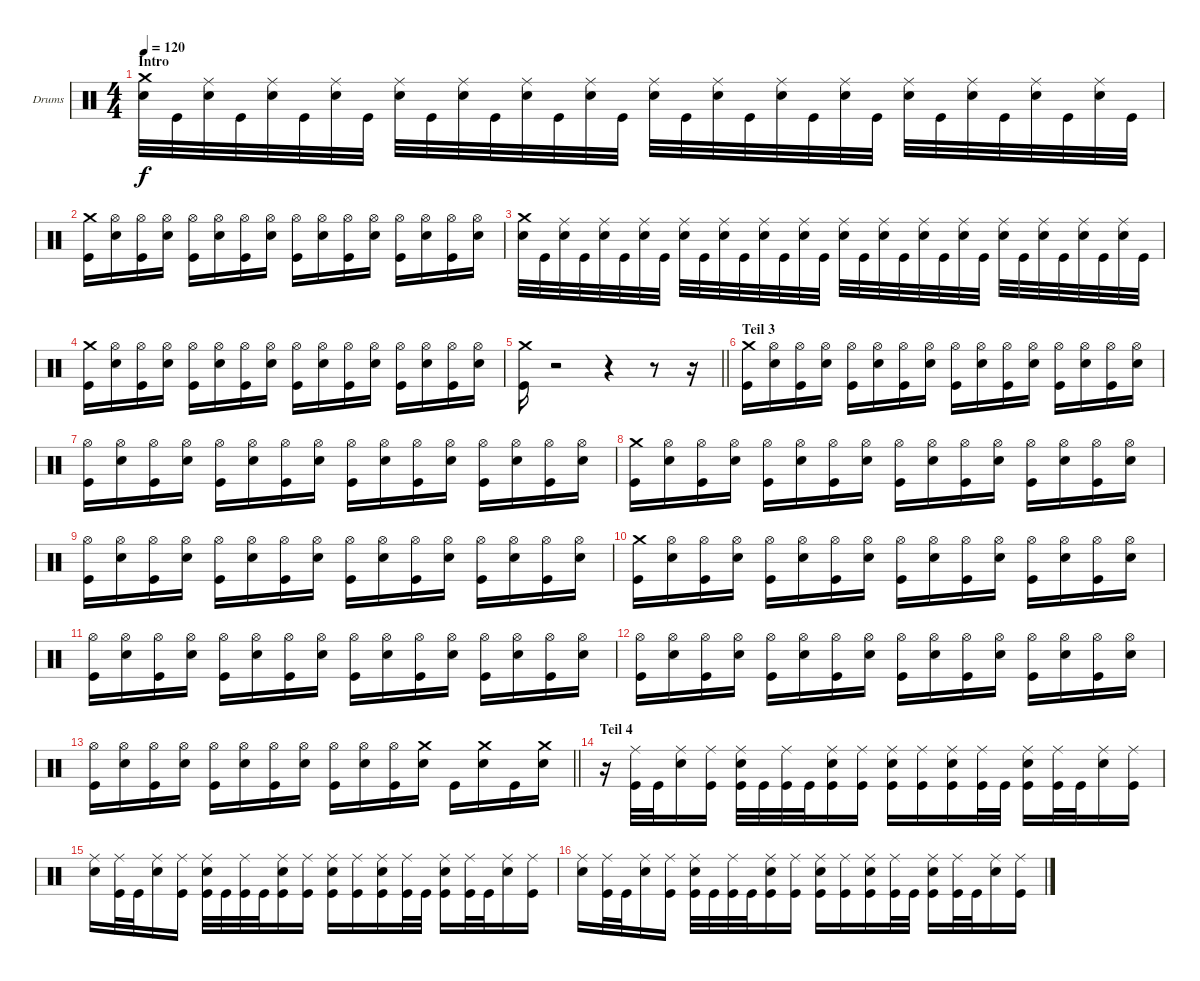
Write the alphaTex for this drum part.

\bracketExtendMode groupsimilarinstruments
\firstSystemTrackNameOrientation horizontal
\otherSystemsTrackNameOrientation horizontal
\track ("Drumkit" "Drums") {instrument percussion}
\staff {score}
\articulation defaults
\ts (4 4)
\beaming (8 2 2 2 2)
\section ("" "Intro")
\tempo 120
\clef neutral
\ks c
("Crash medium (hit)" "Snare (hit) 2").32{dy f} "Kick (hit)".32 ("Ride (middle)" "Snare (hit) 2").32 "Kick (hit)".32 ("Ride (middle)" "Snare (hit) 2").32 "Kick (hit)".32 ("Ride (middle)" "Snare (hit) 2").32 "Kick (hit)".32 ("Ride (middle)" "Snare (hit) 2").32 "Kick (hit)".32 ("Ride (middle)" "Snare (hit) 2").32 "Kick (hit)".32 ("Ride (middle)" "Snare (hit) 2").32 "Kick (hit)".32 ("Ride (middle)" "Snare (hit) 2").32 "Kick (hit)".32 ("Ride (middle)" "Snare (hit) 2").32 "Kick (hit)".32 ("Ride (middle)" "Snare (hit) 2").32 "Kick (hit)".32 ("Ride (middle)" "Snare (hit) 2").32 "Kick (hit)".32 ("Ride (middle)" "Snare (hit) 2").32 "Kick (hit)".32 ("Ride (middle)" "Snare (hit) 2").32 "Kick (hit)".32 ("Ride (middle)" "Snare (hit) 2").32 "Kick (hit)".32 ("Ride (middle)" "Snare (hit) 2").32 "Kick (hit)".32 ("Ride (middle)" "Snare (hit) 2").32 "Kick (hit)".32 |
("Crash medium (hit)" "Kick (hit)").16 ("Hi-Hat (open)" "Snare (hit) 2").16 ("Hi-Hat (open)" "Kick (hit)").16 ("Hi-Hat (open)" "Snare (hit) 2").16 ("Hi-Hat (open)" "Kick (hit)").16 ("Hi-Hat (open)" "Snare (hit) 2").16 ("Hi-Hat (open)" "Kick (hit)").16 ("Hi-Hat (open)" "Snare (hit) 2").16 ("Hi-Hat (open)" "Kick (hit)").16 ("Hi-Hat (open)" "Snare (hit) 2").16 ("Hi-Hat (open)" "Kick (hit)").16 ("Hi-Hat (open)" "Snare (hit) 2").16 ("Hi-Hat (open)" "Kick (hit)").16 ("Hi-Hat (open)" "Snare (hit) 2").16 ("Hi-Hat (open)" "Kick (hit)").16 ("Hi-Hat (open)" "Snare (hit) 2").16 |
("Crash medium (hit)" "Snare (hit) 2").32 "Kick (hit)".32 ("Ride (middle)" "Snare (hit) 2").32 "Kick (hit)".32 ("Ride (middle)" "Snare (hit) 2").32 "Kick (hit)".32 ("Ride (middle)" "Snare (hit) 2").32 "Kick (hit)".32 ("Ride (middle)" "Snare (hit) 2").32 "Kick (hit)".32 ("Ride (middle)" "Snare (hit) 2").32 "Kick (hit)".32 ("Ride (middle)" "Snare (hit) 2").32 "Kick (hit)".32 ("Ride (middle)" "Snare (hit) 2").32 "Kick (hit)".32 ("Ride (middle)" "Snare (hit) 2").32 "Kick (hit)".32 ("Ride (middle)" "Snare (hit) 2").32 "Kick (hit)".32 ("Ride (middle)" "Snare (hit) 2").32 "Kick (hit)".32 ("Ride (middle)" "Snare (hit) 2").32 "Kick (hit)".32 ("Ride (middle)" "Snare (hit) 2").32 "Kick (hit)".32 ("Ride (middle)" "Snare (hit) 2").32 "Kick (hit)".32 ("Ride (middle)" "Snare (hit) 2").32 "Kick (hit)".32 ("Ride (middle)" "Snare (hit) 2").32 "Kick (hit)".32 |
("Crash medium (hit)" "Kick (hit)").16 ("Hi-Hat (open)" "Snare (hit) 2").16 ("Hi-Hat (open)" "Kick (hit)").16 ("Hi-Hat (open)" "Snare (hit) 2").16 ("Hi-Hat (open)" "Kick (hit)").16 ("Hi-Hat (open)" "Snare (hit) 2").16 ("Hi-Hat (open)" "Kick (hit)").16 ("Hi-Hat (open)" "Snare (hit) 2").16 ("Hi-Hat (open)" "Kick (hit)").16 ("Hi-Hat (open)" "Snare (hit) 2").16 ("Hi-Hat (open)" "Kick (hit)").16 ("Hi-Hat (open)" "Snare (hit) 2").16 ("Hi-Hat (open)" "Kick (hit)").16 ("Hi-Hat (open)" "Snare (hit) 2").16 ("Hi-Hat (open)" "Kick (hit)").16 ("Hi-Hat (open)" "Snare (hit) 2").16 |
\barLineRight lightlight
("Crash medium (hit)" "Kick (hit)").16 r.2 r.4 r.8 r.16 |
\section ("" "Teil 3")
("Crash medium (hit)" "Kick (hit)").16 ("Hi-Hat (open)" "Snare (hit) 2").16 ("Hi-Hat (open)" "Kick (hit)").16 ("Hi-Hat (open)" "Snare (hit) 2").16 ("Hi-Hat (open)" "Kick (hit)").16 ("Hi-Hat (open)" "Snare (hit) 2").16 ("Hi-Hat (open)" "Kick (hit)").16 ("Hi-Hat (open)" "Snare (hit) 2").16 ("Hi-Hat (open)" "Kick (hit)").16 ("Hi-Hat (open)" "Snare (hit) 2").16 ("Hi-Hat (open)" "Kick (hit)").16 ("Hi-Hat (open)" "Snare (hit) 2").16 ("Hi-Hat (open)" "Kick (hit)").16 ("Hi-Hat (open)" "Snare (hit) 2").16 ("Hi-Hat (open)" "Kick (hit)").16 ("Hi-Hat (open)" "Snare (hit) 2").16 |
("Hi-Hat (open)" "Kick (hit)").16 ("Hi-Hat (open)" "Snare (hit) 2").16 ("Hi-Hat (open)" "Kick (hit)").16 ("Hi-Hat (open)" "Snare (hit) 2").16 ("Hi-Hat (open)" "Kick (hit)").16 ("Hi-Hat (open)" "Snare (hit) 2").16 ("Hi-Hat (open)" "Kick (hit)").16 ("Hi-Hat (open)" "Snare (hit) 2").16 ("Hi-Hat (open)" "Kick (hit)").16 ("Hi-Hat (open)" "Snare (hit) 2").16 ("Hi-Hat (open)" "Kick (hit)").16 ("Hi-Hat (open)" "Snare (hit) 2").16 ("Hi-Hat (open)" "Kick (hit)").16 ("Hi-Hat (open)" "Snare (hit) 2").16 ("Hi-Hat (open)" "Kick (hit)").16 ("Hi-Hat (open)" "Snare (hit) 2").16 |
("Crash medium (hit)" "Kick (hit)").16 ("Hi-Hat (open)" "Snare (hit) 2").16 ("Hi-Hat (open)" "Kick (hit)").16 ("Hi-Hat (open)" "Snare (hit) 2").16 ("Hi-Hat (open)" "Kick (hit)").16 ("Hi-Hat (open)" "Snare (hit) 2").16 ("Hi-Hat (open)" "Kick (hit)").16 ("Hi-Hat (open)" "Snare (hit) 2").16 ("Hi-Hat (open)" "Kick (hit)").16 ("Hi-Hat (open)" "Snare (hit) 2").16 ("Hi-Hat (open)" "Kick (hit)").16 ("Hi-Hat (open)" "Snare (hit) 2").16 ("Hi-Hat (open)" "Kick (hit)").16 ("Hi-Hat (open)" "Snare (hit) 2").16 ("Hi-Hat (open)" "Kick (hit)").16 ("Hi-Hat (open)" "Snare (hit) 2").16 |
("Hi-Hat (open)" "Kick (hit)").16 ("Hi-Hat (open)" "Snare (hit) 2").16 ("Hi-Hat (open)" "Kick (hit)").16 ("Hi-Hat (open)" "Snare (hit) 2").16 ("Hi-Hat (open)" "Kick (hit)").16 ("Hi-Hat (open)" "Snare (hit) 2").16 ("Hi-Hat (open)" "Kick (hit)").16 ("Hi-Hat (open)" "Snare (hit) 2").16 ("Hi-Hat (open)" "Kick (hit)").16 ("Hi-Hat (open)" "Snare (hit) 2").16 ("Hi-Hat (open)" "Kick (hit)").16 ("Hi-Hat (open)" "Snare (hit) 2").16 ("Hi-Hat (open)" "Kick (hit)").16 ("Hi-Hat (open)" "Snare (hit) 2").16 ("Hi-Hat (open)" "Kick (hit)").16 ("Hi-Hat (open)" "Snare (hit) 2").16 |
("Crash medium (hit)" "Kick (hit)").16 ("Hi-Hat (open)" "Snare (hit) 2").16 ("Hi-Hat (open)" "Kick (hit)").16 ("Hi-Hat (open)" "Snare (hit) 2").16 ("Hi-Hat (open)" "Kick (hit)").16 ("Hi-Hat (open)" "Snare (hit) 2").16 ("Hi-Hat (open)" "Kick (hit)").16 ("Hi-Hat (open)" "Snare (hit) 2").16 ("Hi-Hat (open)" "Kick (hit)").16 ("Hi-Hat (open)" "Snare (hit) 2").16 ("Hi-Hat (open)" "Kick (hit)").16 ("Hi-Hat (open)" "Snare (hit) 2").16 ("Hi-Hat (open)" "Kick (hit)").16 ("Hi-Hat (open)" "Snare (hit) 2").16 ("Hi-Hat (open)" "Kick (hit)").16 ("Hi-Hat (open)" "Snare (hit) 2").16 |
("Hi-Hat (open)" "Kick (hit)").16 ("Hi-Hat (open)" "Snare (hit) 2").16 ("Hi-Hat (open)" "Kick (hit)").16 ("Hi-Hat (open)" "Snare (hit) 2").16 ("Hi-Hat (open)" "Kick (hit)").16 ("Hi-Hat (open)" "Snare (hit) 2").16 ("Hi-Hat (open)" "Kick (hit)").16 ("Hi-Hat (open)" "Snare (hit) 2").16 ("Hi-Hat (open)" "Kick (hit)").16 ("Hi-Hat (open)" "Snare (hit) 2").16 ("Hi-Hat (open)" "Kick (hit)").16 ("Hi-Hat (open)" "Snare (hit) 2").16 ("Hi-Hat (open)" "Kick (hit)").16 ("Hi-Hat (open)" "Snare (hit) 2").16 ("Hi-Hat (open)" "Kick (hit)").16 ("Hi-Hat (open)" "Snare (hit) 2").16 |
("Hi-Hat (open)" "Kick (hit)").16 ("Hi-Hat (open)" "Snare (hit) 2").16 ("Hi-Hat (open)" "Kick (hit)").16 ("Hi-Hat (open)" "Snare (hit) 2").16 ("Hi-Hat (open)" "Kick (hit)").16 ("Hi-Hat (open)" "Snare (hit) 2").16 ("Hi-Hat (open)" "Kick (hit)").16 ("Hi-Hat (open)" "Snare (hit) 2").16 ("Hi-Hat (open)" "Kick (hit)").16 ("Hi-Hat (open)" "Snare (hit) 2").16 ("Hi-Hat (open)" "Kick (hit)").16 ("Hi-Hat (open)" "Snare (hit) 2").16 ("Hi-Hat (open)" "Kick (hit)").16 ("Hi-Hat (open)" "Snare (hit) 2").16 ("Hi-Hat (open)" "Kick (hit)").16 ("Hi-Hat (open)" "Snare (hit) 2").16 |
\barLineRight lightlight
("Hi-Hat (open)" "Kick (hit)").16 ("Hi-Hat (open)" "Snare (hit) 2").16 ("Hi-Hat (open)" "Kick (hit)").16 ("Hi-Hat (open)" "Snare (hit) 2").16 ("Hi-Hat (open)" "Kick (hit)").16 ("Hi-Hat (open)" "Snare (hit) 2").16 ("Hi-Hat (open)" "Kick (hit)").16 ("Hi-Hat (open)" "Snare (hit) 2").16 ("Hi-Hat (open)" "Kick (hit)").16 ("Hi-Hat (open)" "Snare (hit) 2").16 ("Hi-Hat (open)" "Kick (hit)").16 ("Crash medium (hit)" "Snare (hit) 2").16 "Kick (hit)".16 ("Crash medium (hit)" "Snare (hit) 2").16 "Kick (hit)".16 ("Crash medium (hit)" "Snare (hit) 2").16 |
\section ("" "Teil 4")
r.16 ("Ride (middle)" "Kick (hit)").32 "Kick (hit)".32 ("Ride (middle)" "Snare (hit) 2").16 ("Ride (middle)" "Kick (hit)").16 ("Ride (middle)" "Snare (hit) 2" "Kick (hit)").32 "Kick (hit)".32 ("Ride (middle)" "Kick (hit)").32 "Kick (hit)".32 ("Ride (middle)" "Snare (hit) 2" "Kick (hit)").16 ("Ride (middle)" "Kick (hit)").16 ("Ride (middle)" "Snare (hit) 2" "Kick (hit)").16 ("Ride (middle)" "Kick (hit)").16 ("Ride (middle)" "Snare (hit) 2" "Kick (hit)").16 ("Ride (middle)" "Kick (hit)").32 "Kick (hit)".32 ("Ride (middle)" "Snare (hit) 2" "Kick (hit)").16 ("Ride (middle)" "Kick (hit)").32 "Kick (hit)".32 ("Ride (middle)" "Snare (hit) 2").16 ("Ride (middle)" "Kick (hit)").16 |
("Ride (middle)" "Snare (hit) 2").16 ("Ride (middle)" "Kick (hit)").32 "Kick (hit)".32 ("Ride (middle)" "Snare (hit) 2").16 ("Ride (middle)" "Kick (hit)").16 ("Ride (middle)" "Snare (hit) 2" "Kick (hit)").32 "Kick (hit)".32 ("Ride (middle)" "Kick (hit)").32 "Kick (hit)".32 ("Ride (middle)" "Snare (hit) 2" "Kick (hit)").16 ("Ride (middle)" "Kick (hit)").16 ("Ride (middle)" "Snare (hit) 2" "Kick (hit)").16 ("Ride (middle)" "Kick (hit)").16 ("Ride (middle)" "Snare (hit) 2" "Kick (hit)").16 ("Ride (middle)" "Kick (hit)").32 "Kick (hit)".32 ("Ride (middle)" "Snare (hit) 2" "Kick (hit)").16 ("Ride (middle)" "Kick (hit)").32 "Kick (hit)".32 ("Ride (middle)" "Snare (hit) 2").16 ("Ride (middle)" "Kick (hit)").16 |
("Ride (middle)" "Snare (hit) 2").16 ("Ride (middle)" "Kick (hit)").32 "Kick (hit)".32 ("Ride (middle)" "Snare (hit) 2").16 ("Ride (middle)" "Kick (hit)").16 ("Ride (middle)" "Snare (hit) 2" "Kick (hit)").32 "Kick (hit)".32 ("Ride (middle)" "Kick (hit)").32 "Kick (hit)".32 ("Ride (middle)" "Snare (hit) 2" "Kick (hit)").16 ("Ride (middle)" "Kick (hit)").16 ("Ride (middle)" "Snare (hit) 2" "Kick (hit)").16 ("Ride (middle)" "Kick (hit)").16 ("Ride (middle)" "Snare (hit) 2" "Kick (hit)").16 ("Ride (middle)" "Kick (hit)").32 "Kick (hit)".32 ("Ride (middle)" "Snare (hit) 2" "Kick (hit)").16 ("Ride (middle)" "Kick (hit)").32 "Kick (hit)".32 ("Ride (middle)" "Snare (hit) 2").16 ("Ride (middle)" "Kick (hit)").16
